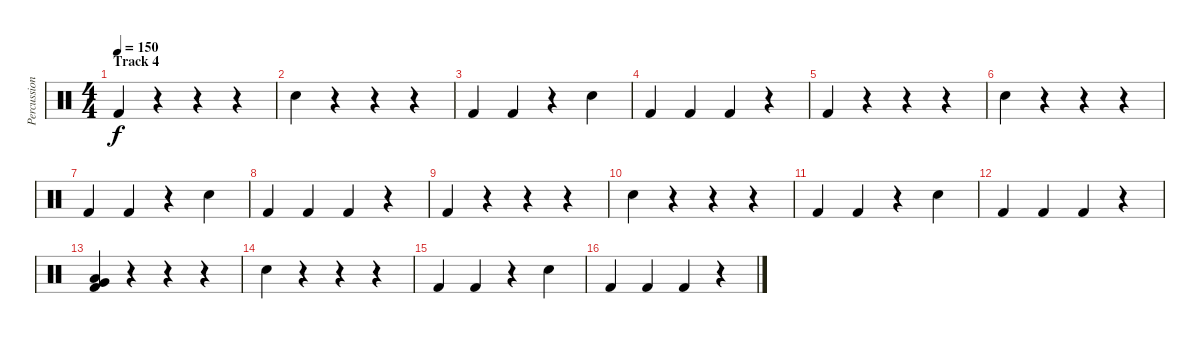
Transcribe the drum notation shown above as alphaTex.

\track ("Percussion" "Percussion") {instrument percussion}
\staff {score}
\articulation defaults
\ts (4 4)
\section ("" "Track 4")
\tempo 150
\clef neutral
\ks c "Kick (hit) 2".4{dy f}
r.4 r.4 r.4 |
"Electric Snare (hit)".4 r.4 r.4 r.4 |
"Kick (hit) 2".4 "Kick (hit) 2".4 r.4 "Electric Snare (hit)".4 |
"Kick (hit) 2".4 "Kick (hit) 2".4 "Kick (hit) 2".4 r.4 |
"Kick (hit) 2".4 r.4 r.4 r.4 |
"Electric Snare (hit)".4 r.4 r.4 r.4 |
"Kick (hit) 2".4 "Kick (hit) 2".4 r.4 "Electric Snare (hit)".4 |
"Kick (hit) 2".4 "Kick (hit) 2".4 "Kick (hit) 2".4 r.4 |
"Kick (hit) 2".4 r.4 r.4 r.4 |
"Electric Snare (hit)".4 r.4 r.4 r.4 |
"Kick (hit) 2".4 "Kick (hit) 2".4 r.4 "Electric Snare (hit)".4 |
"Kick (hit) 2".4 "Kick (hit) 2".4 "Kick (hit) 2".4 r.4 |
("Low Floor Tom (hit)" "Very Low Tom (hit)" "Kick (hit) 2").4 r.4 r.4 r.4 |
"Electric Snare (hit)".4 r.4 r.4 r.4 |
"Kick (hit) 2".4 "Kick (hit) 2".4 r.4 "Electric Snare (hit)".4 |
"Kick (hit) 2".4 "Kick (hit) 2".4 "Kick (hit) 2".4 r.4
